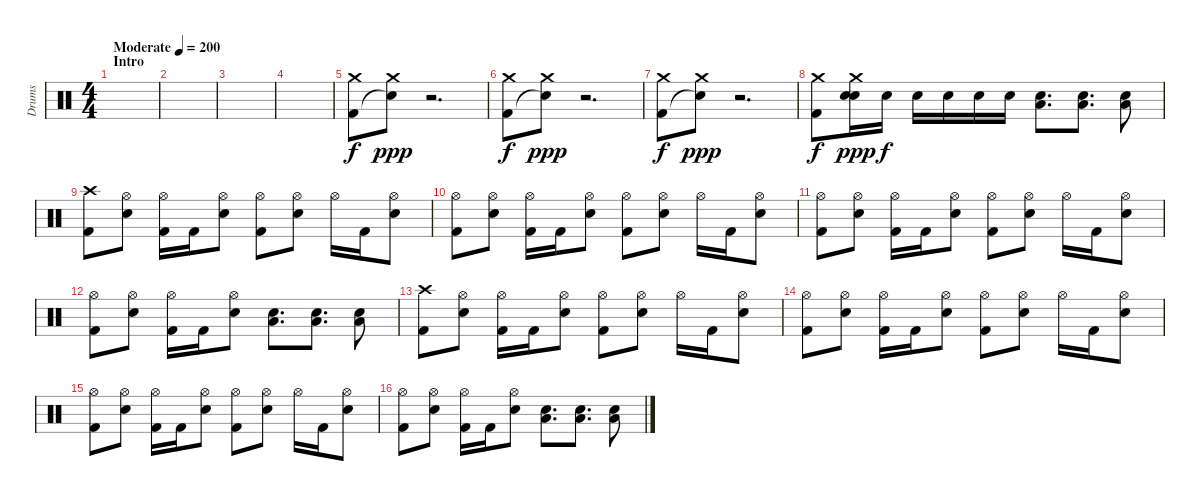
\track ("Drums" "Drums") {instrument percussion}
\staff {score}
\articulation defaults
\ts (4 4)
\section ("" "Intro")
\tempo (200 "Moderate")
\clef neutral
\ks c
|
|
|
|
("Crash medium (hit)" "Kick (hit) 2").8 ("Crash medium (hit)" "Snare (hit)"{t}).8{dy ppp} r.2{d} |
("Crash medium (hit)" "Kick (hit) 2").8{dy f} ("Crash medium (hit)" "Snare (hit)"{t}).8{dy ppp} r.2{d} |
("Crash medium (hit)" "Kick (hit) 2").8{dy f} ("Crash medium (hit)" "Snare (hit)"{t}).8{dy ppp} r.2{d} |
("Crash medium (hit)" "Kick (hit) 2").8{dy f} ("Crash medium (hit)" "Electric Snare (hit)" "Snare (hit)").16{dy ppp} "Electric Snare (hit)".16{dy f} "Electric Snare (hit)".16 "Electric Snare (hit)".16 "Electric Snare (hit)".16 "Electric Snare (hit)".16 ("Low Tom (hit)" "Electric Snare (hit)").8{d} ("Low Tom (hit)" "Electric Snare (hit)").8{d} ("Low Tom (hit)" "Electric Snare (hit)").8 |
("Crash high (hit)" "Kick (hit) 2").8 ("Hi-Hat (open)" "Electric Snare (hit)").8 ("Hi-Hat (open)" "Kick (hit) 2").16 "Kick (hit) 2".16 ("Hi-Hat (open)" "Electric Snare (hit)").8 ("Hi-Hat (open)" "Kick (hit) 2").8 ("Hi-Hat (open)" "Electric Snare (hit)").8 "Hi-Hat (open)".16 "Kick (hit) 2".16 ("Hi-Hat (open)" "Electric Snare (hit)").8 |
("Hi-Hat (open)" "Kick (hit) 2").8 ("Hi-Hat (open)" "Electric Snare (hit)").8 ("Hi-Hat (open)" "Kick (hit) 2").16 "Kick (hit) 2".16 ("Hi-Hat (open)" "Electric Snare (hit)").8 ("Hi-Hat (open)" "Kick (hit) 2").8 ("Hi-Hat (open)" "Electric Snare (hit)").8 "Hi-Hat (open)".16 "Kick (hit) 2".16 ("Hi-Hat (open)" "Electric Snare (hit)").8 |
("Hi-Hat (open)" "Kick (hit) 2").8 ("Hi-Hat (open)" "Electric Snare (hit)").8 ("Hi-Hat (open)" "Kick (hit) 2").16 "Kick (hit) 2".16 ("Hi-Hat (open)" "Electric Snare (hit)").8 ("Hi-Hat (open)" "Kick (hit) 2").8 ("Hi-Hat (open)" "Electric Snare (hit)").8 "Hi-Hat (open)".16 "Kick (hit) 2".16 ("Hi-Hat (open)" "Electric Snare (hit)").8 |
("Hi-Hat (open)" "Kick (hit) 2").8 ("Hi-Hat (open)" "Electric Snare (hit)").8 ("Hi-Hat (open)" "Kick (hit) 2").16 "Kick (hit) 2".16 ("Hi-Hat (open)" "Electric Snare (hit)").8 ("Low Tom (hit)" "Electric Snare (hit)").8{d} ("Low Tom (hit)" "Electric Snare (hit)").8{d} ("Low Tom (hit)" "Electric Snare (hit)").8 |
("Crash high (hit)" "Kick (hit) 2").8 ("Hi-Hat (open)" "Electric Snare (hit)").8 ("Hi-Hat (open)" "Kick (hit) 2").16 "Kick (hit) 2".16 ("Hi-Hat (open)" "Electric Snare (hit)").8 ("Hi-Hat (open)" "Kick (hit) 2").8 ("Hi-Hat (open)" "Electric Snare (hit)").8 "Hi-Hat (open)".16 "Kick (hit) 2".16 ("Hi-Hat (open)" "Electric Snare (hit)").8 |
("Hi-Hat (open)" "Kick (hit) 2").8 ("Hi-Hat (open)" "Electric Snare (hit)").8 ("Hi-Hat (open)" "Kick (hit) 2").16 "Kick (hit) 2".16 ("Hi-Hat (open)" "Electric Snare (hit)").8 ("Hi-Hat (open)" "Kick (hit) 2").8 ("Hi-Hat (open)" "Electric Snare (hit)").8 "Hi-Hat (open)".16 "Kick (hit) 2".16 ("Hi-Hat (open)" "Electric Snare (hit)").8 |
("Hi-Hat (open)" "Kick (hit) 2").8 ("Hi-Hat (open)" "Electric Snare (hit)").8 ("Hi-Hat (open)" "Kick (hit) 2").16 "Kick (hit) 2".16 ("Hi-Hat (open)" "Electric Snare (hit)").8 ("Hi-Hat (open)" "Kick (hit) 2").8 ("Hi-Hat (open)" "Electric Snare (hit)").8 "Hi-Hat (open)".16 "Kick (hit) 2".16 ("Hi-Hat (open)" "Electric Snare (hit)").8 |
("Hi-Hat (open)" "Kick (hit) 2").8 ("Hi-Hat (open)" "Electric Snare (hit)").8 ("Hi-Hat (open)" "Kick (hit) 2").16 "Kick (hit) 2".16 ("Hi-Hat (open)" "Electric Snare (hit)").8 ("Low Tom (hit)" "Electric Snare (hit)").8{d} ("Low Tom (hit)" "Electric Snare (hit)").8{d} ("Low Tom (hit)" "Electric Snare (hit)").8
